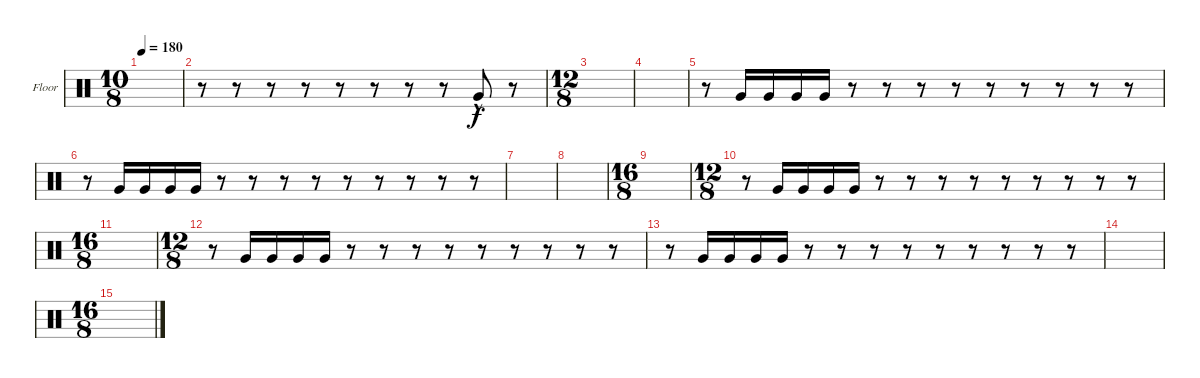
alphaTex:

\defaultSystemsLayout 4
\bracketExtendMode groupsimilarinstruments
\firstSystemTrackNameOrientation horizontal
\otherSystemsTrackNameOrientation horizontal
\track ("Floor Toms" "Floor") {instrument percussion}
\staff {score}
\articulation defaults
\ts (10 8)
\tempo 180
\clef neutral
\ks c
|
r.8 r.8 r.8 r.8 r.8 r.8 r.8 r.8 "Very Low Tom (hit)"{hac}.8 r.8 |
\ts (12 8)
|
|
r.8 "Very Low Tom (hit)".16 "Very Low Tom (hit)".16 "Very Low Tom (hit)".16 "Very Low Tom (hit)".16 r.8 r.8 r.8 r.8 r.8 r.8 r.8 r.8 r.8 |
r.8 "Very Low Tom (hit)".16 "Very Low Tom (hit)".16 "Very Low Tom (hit)".16 "Very Low Tom (hit)".16 r.8 r.8 r.8 r.8 r.8 r.8 r.8 r.8 r.8 |
|
|
\ts (16 8)
|
\ts (12 8)
r.8 "Very Low Tom (hit)".16 "Very Low Tom (hit)".16 "Very Low Tom (hit)".16 "Very Low Tom (hit)".16 r.8 r.8 r.8 r.8 r.8 r.8 r.8 r.8 r.8 |
\ts (16 8)
|
\ts (12 8)
r.8 "Very Low Tom (hit)".16 "Very Low Tom (hit)".16 "Very Low Tom (hit)".16 "Very Low Tom (hit)".16 r.8 r.8 r.8 r.8 r.8 r.8 r.8 r.8 r.8 |
r.8 "Very Low Tom (hit)".16 "Very Low Tom (hit)".16 "Very Low Tom (hit)".16 "Very Low Tom (hit)".16 r.8 r.8 r.8 r.8 r.8 r.8 r.8 r.8 r.8 |
|
\ts (16 8)
